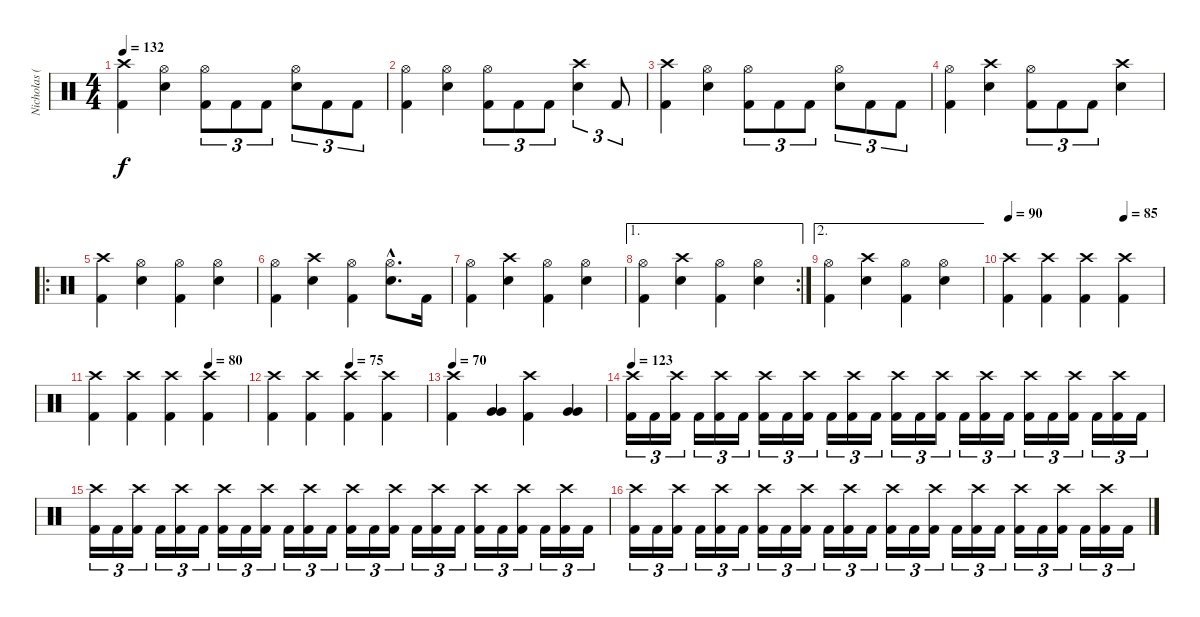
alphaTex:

\track ("Nicholas (Drums)" "Nicholas (") {instrument percussion}
\staff {score}
\articulation defaults
\ts (4 4)
\tempo 132
\clef neutral
\ks c
("Crash high (hit)" "Kick (hit) 2").4{dy f} ("Hi-Hat (open)" "Electric Snare (hit)").4 ("Hi-Hat (open)" "Kick (hit) 2").8{tu (3 2)} "Kick (hit) 2".8{tu (3 2)} "Kick (hit) 2".8{tu (3 2)} ("Hi-Hat (open)" "Electric Snare (hit)").8{tu (3 2)} "Kick (hit) 2".8{tu (3 2)} "Kick (hit) 2".8{tu (3 2)} |
("Hi-Hat (open)" "Kick (hit) 2").4 ("Hi-Hat (open)" "Electric Snare (hit)").4 ("Hi-Hat (open)" "Kick (hit) 2").8{tu (3 2)} "Kick (hit) 2".8{tu (3 2)} "Kick (hit) 2".8{tu (3 2)} ("Crash high (hit)" "Electric Snare (hit)").4{tu (3 2)} "Kick (hit) 2".8{tu (3 2)} |
("Crash high (hit)" "Kick (hit) 2").4 ("Hi-Hat (open)" "Electric Snare (hit)").4 ("Hi-Hat (open)" "Kick (hit) 2").8{tu (3 2)} "Kick (hit) 2".8{tu (3 2)} "Kick (hit) 2".8{tu (3 2)} ("Hi-Hat (open)" "Electric Snare (hit)").8{tu (3 2)} "Kick (hit) 2".8{tu (3 2)} "Kick (hit) 2".8{tu (3 2)} |
("Hi-Hat (open)" "Kick (hit) 2").4 ("Crash high (hit)" "Electric Snare (hit)").4 ("Hi-Hat (open)" "Kick (hit) 2").8{tu (3 2)} "Kick (hit) 2".8{tu (3 2)} "Kick (hit) 2".8{tu (3 2)} ("Crash high (hit)" "Electric Snare (hit)").4 |
\ro
("Crash high (hit)" "Kick (hit) 2").4 ("Hi-Hat (open)" "Electric Snare (hit)").4 ("Hi-Hat (open)" "Kick (hit) 2").4 ("Hi-Hat (open)" "Electric Snare (hit)").4 |
("Hi-Hat (open)" "Kick (hit) 2").4 ("Crash high (hit)" "Electric Snare (hit)").4 ("Hi-Hat (open)" "Kick (hit) 2").4 ("Hi-Hat (open)"{hac} "Electric Snare (hit)"{hac}).8{d} "Kick (hit) 2".16 |
("Hi-Hat (open)" "Kick (hit) 2").4 ("Crash high (hit)" "Electric Snare (hit)").4 ("Hi-Hat (open)" "Kick (hit) 2").4 ("Hi-Hat (open)" "Electric Snare (hit)").4 |
\ae 1
\rc 2
("Hi-Hat (open)" "Kick (hit) 2").4 ("Crash high (hit)" "Electric Snare (hit)").4 ("Hi-Hat (open)" "Kick (hit) 2").4 ("Hi-Hat (open)" "Electric Snare (hit)").4 |
\ae 2
("Hi-Hat (open)" "Kick (hit) 2").4 ("Crash high (hit)" "Electric Snare (hit)").4 ("Hi-Hat (open)" "Kick (hit) 2").4 ("Hi-Hat (open)" "Electric Snare (hit)").4 |
\tempo 90
\tempo (85 0.75)
("Crash high (hit)" "Kick (hit) 2").4 ("Crash high (hit)" "Kick (hit) 2").4 ("Crash high (hit)" "Kick (hit) 2").4 ("Crash high (hit)" "Kick (hit) 2").4 |
\tempo (80 0.75)
("Crash high (hit)" "Kick (hit) 2").4 ("Crash high (hit)" "Kick (hit) 2").4 ("Crash high (hit)" "Kick (hit) 2").4 ("Crash high (hit)" "Kick (hit) 2").4 |
\tempo (75 0.5)
("Crash high (hit)" "Kick (hit) 2").4 ("Crash high (hit)" "Kick (hit) 2").4 ("Crash high (hit)" "Kick (hit) 2").4 ("Crash high (hit)" "Kick (hit) 2").4 |
\tempo 70
("Crash high (hit)" "Kick (hit) 2").4 ("Very Low Tom (hit)" "Very Low Tom (hit)").4 ("Crash high (hit)" "Kick (hit) 2").4 ("Very Low Tom (hit)" "Very Low Tom (hit)").4 |
\tempo 123
("Crash high (hit)" "Kick (hit) 2").16{tu (3 2)} "Kick (hit) 2".16{tu (3 2)} ("Crash high (hit)" "Kick (hit) 2").16{tu (3 2)} "Kick (hit) 2".16{tu (3 2)} ("Crash high (hit)" "Kick (hit) 2").16{tu (3 2)} "Kick (hit) 2".16{tu (3 2)} ("Crash high (hit)" "Kick (hit) 2").16{tu (3 2)} "Kick (hit) 2".16{tu (3 2)} ("Crash high (hit)" "Kick (hit) 2").16{tu (3 2)} "Kick (hit) 2".16{tu (3 2)} ("Crash high (hit)" "Kick (hit) 2").16{tu (3 2)} "Kick (hit) 2".16{tu (3 2)} ("Crash high (hit)" "Kick (hit) 2").16{tu (3 2)} "Kick (hit) 2".16{tu (3 2)} ("Crash high (hit)" "Kick (hit) 2").16{tu (3 2)} "Kick (hit) 2".16{tu (3 2)} ("Crash high (hit)" "Kick (hit) 2").16{tu (3 2)} "Kick (hit) 2".16{tu (3 2)} ("Crash high (hit)" "Kick (hit) 2").16{tu (3 2)} "Kick (hit) 2".16{tu (3 2)} ("Crash high (hit)" "Kick (hit) 2").16{tu (3 2)} "Kick (hit) 2".16{tu (3 2)} ("Crash high (hit)" "Kick (hit) 2").16{tu (3 2)} "Kick (hit) 2".16{tu (3 2)} |
("Crash high (hit)" "Kick (hit) 2").16{tu (3 2)} "Kick (hit) 2".16{tu (3 2)} ("Crash high (hit)" "Kick (hit) 2").16{tu (3 2)} "Kick (hit) 2".16{tu (3 2)} ("Crash high (hit)" "Kick (hit) 2").16{tu (3 2)} "Kick (hit) 2".16{tu (3 2)} ("Crash high (hit)" "Kick (hit) 2").16{tu (3 2)} "Kick (hit) 2".16{tu (3 2)} ("Crash high (hit)" "Kick (hit) 2").16{tu (3 2)} "Kick (hit) 2".16{tu (3 2)} ("Crash high (hit)" "Kick (hit) 2").16{tu (3 2)} "Kick (hit) 2".16{tu (3 2)} ("Crash high (hit)" "Kick (hit) 2").16{tu (3 2)} "Kick (hit) 2".16{tu (3 2)} ("Crash high (hit)" "Kick (hit) 2").16{tu (3 2)} "Kick (hit) 2".16{tu (3 2)} ("Crash high (hit)" "Kick (hit) 2").16{tu (3 2)} "Kick (hit) 2".16{tu (3 2)} ("Crash high (hit)" "Kick (hit) 2").16{tu (3 2)} "Kick (hit) 2".16{tu (3 2)} ("Crash high (hit)" "Kick (hit) 2").16{tu (3 2)} "Kick (hit) 2".16{tu (3 2)} ("Crash high (hit)" "Kick (hit) 2").16{tu (3 2)} "Kick (hit) 2".16{tu (3 2)} |
("Crash high (hit)" "Kick (hit) 2").16{tu (3 2)} "Kick (hit) 2".16{tu (3 2)} ("Crash high (hit)" "Kick (hit) 2").16{tu (3 2)} "Kick (hit) 2".16{tu (3 2)} ("Crash high (hit)" "Kick (hit) 2").16{tu (3 2)} "Kick (hit) 2".16{tu (3 2)} ("Crash high (hit)" "Kick (hit) 2").16{tu (3 2)} "Kick (hit) 2".16{tu (3 2)} ("Crash high (hit)" "Kick (hit) 2").16{tu (3 2)} "Kick (hit) 2".16{tu (3 2)} ("Crash high (hit)" "Kick (hit) 2").16{tu (3 2)} "Kick (hit) 2".16{tu (3 2)} ("Crash high (hit)" "Kick (hit) 2").16{tu (3 2)} "Kick (hit) 2".16{tu (3 2)} ("Crash high (hit)" "Kick (hit) 2").16{tu (3 2)} "Kick (hit) 2".16{tu (3 2)} ("Crash high (hit)" "Kick (hit) 2").16{tu (3 2)} "Kick (hit) 2".16{tu (3 2)} ("Crash high (hit)" "Kick (hit) 2").16{tu (3 2)} "Kick (hit) 2".16{tu (3 2)} ("Crash high (hit)" "Kick (hit) 2").16{tu (3 2)} "Kick (hit) 2".16{tu (3 2)} ("Crash high (hit)" "Kick (hit) 2").16{tu (3 2)} "Kick (hit) 2".16{tu (3 2)}
